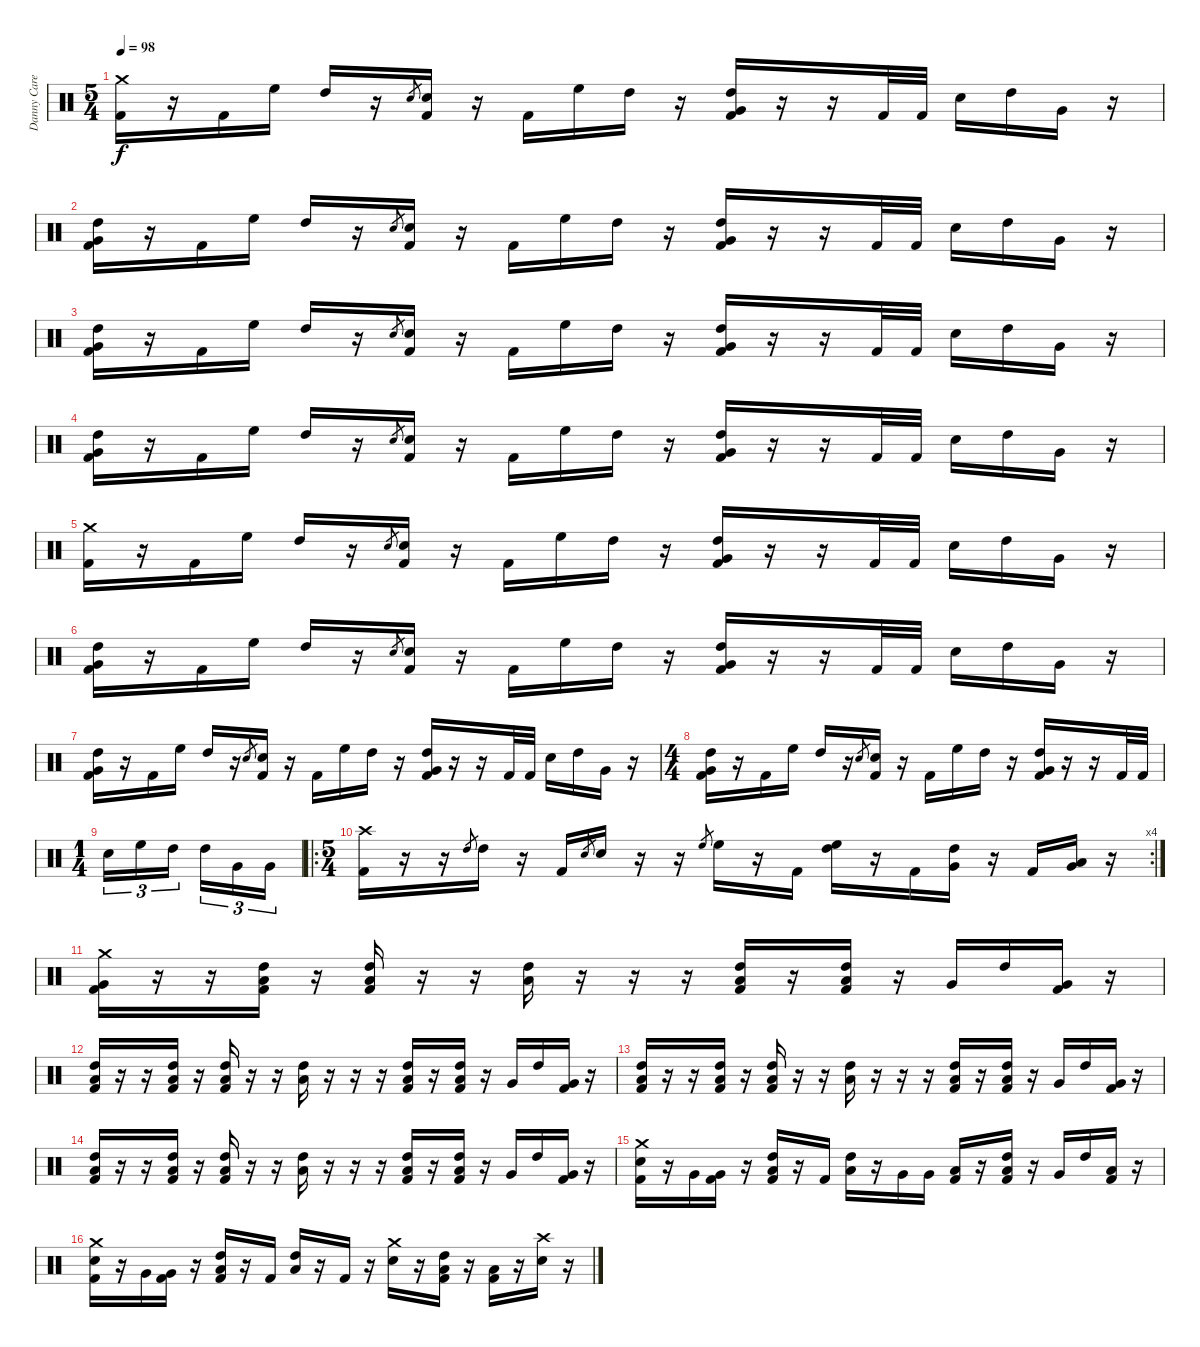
\track ("Danny Carey" "Danny Care") {instrument percussion}
\staff {score}
\articulation defaults
\ts (5 4)
\tempo 98
\clef neutral
\ks c
("Crash medium (hit)" "Kick (hit) 2").16{dy f} r.16 "Kick (hit) 2".16 "High Floor Tom (hit)".16 "High Tom (hit)".16 r.16 "Electric Snare (hit)".8{gr} ("Electric Snare (hit)" "Kick (hit) 2").16 r.16 "Kick (hit) 2".16 "High Floor Tom (hit)".16 "High Tom (hit)".16 r.16 ("High Tom (hit)" "Very Low Tom (hit)" "Kick (hit) 2").16 r.16 r.16 "Kick (hit) 2".32 "Kick (hit) 2".32 "Electric Snare (hit)".16 "High Tom (hit)".16 "Very Low Tom (hit)".16 r.16 |
("High Tom (hit)" "Very Low Tom (hit)" "Kick (hit) 2").16 r.16 "Kick (hit) 2".16 "High Floor Tom (hit)".16 "High Tom (hit)".16 r.16 "Electric Snare (hit)".8{gr} ("Electric Snare (hit)" "Kick (hit) 2").16 r.16 "Kick (hit) 2".16 "High Floor Tom (hit)".16 "High Tom (hit)".16 r.16 ("High Tom (hit)" "Very Low Tom (hit)" "Kick (hit) 2").16 r.16 r.16 "Kick (hit) 2".32 "Kick (hit) 2".32 "Electric Snare (hit)".16 "High Tom (hit)".16 "Very Low Tom (hit)".16 r.16 |
("High Tom (hit)" "Very Low Tom (hit)" "Kick (hit) 2").16 r.16 "Kick (hit) 2".16 "High Floor Tom (hit)".16 "High Tom (hit)".16 r.16 "Electric Snare (hit)".8{gr} ("Electric Snare (hit)" "Kick (hit) 2").16 r.16 "Kick (hit) 2".16 "High Floor Tom (hit)".16 "High Tom (hit)".16 r.16 ("High Tom (hit)" "Very Low Tom (hit)" "Kick (hit) 2").16 r.16 r.16 "Kick (hit) 2".32 "Kick (hit) 2".32 "Electric Snare (hit)".16 "High Tom (hit)".16 "Very Low Tom (hit)".16 r.16 |
("High Tom (hit)" "Very Low Tom (hit)" "Kick (hit) 2").16 r.16 "Kick (hit) 2".16 "High Floor Tom (hit)".16 "High Tom (hit)".16 r.16 "Electric Snare (hit)".8{gr} ("Electric Snare (hit)" "Kick (hit) 2").16 r.16 "Kick (hit) 2".16 "High Floor Tom (hit)".16 "High Tom (hit)".16 r.16 ("High Tom (hit)" "Very Low Tom (hit)" "Kick (hit) 2").16 r.16 r.16 "Kick (hit) 2".32 "Kick (hit) 2".32 "Electric Snare (hit)".16 "High Tom (hit)".16 "Very Low Tom (hit)".16 r.16 |
("Crash medium (hit)" "Kick (hit) 2").16 r.16 "Kick (hit) 2".16 "High Floor Tom (hit)".16 "High Tom (hit)".16 r.16 "Electric Snare (hit)".8{gr} ("Electric Snare (hit)" "Kick (hit) 2").16 r.16 "Kick (hit) 2".16 "High Floor Tom (hit)".16 "High Tom (hit)".16 r.16 ("High Tom (hit)" "Very Low Tom (hit)" "Kick (hit) 2").16 r.16 r.16 "Kick (hit) 2".32 "Kick (hit) 2".32 "Electric Snare (hit)".16 "High Tom (hit)".16 "Very Low Tom (hit)".16 r.16 |
("High Tom (hit)" "Very Low Tom (hit)" "Kick (hit) 2").16 r.16 "Kick (hit) 2".16 "High Floor Tom (hit)".16 "High Tom (hit)".16 r.16 "Electric Snare (hit)".8{gr} ("Electric Snare (hit)" "Kick (hit) 2").16 r.16 "Kick (hit) 2".16 "High Floor Tom (hit)".16 "High Tom (hit)".16 r.16 ("High Tom (hit)" "Very Low Tom (hit)" "Kick (hit) 2").16 r.16 r.16 "Kick (hit) 2".32 "Kick (hit) 2".32 "Electric Snare (hit)".16 "High Tom (hit)".16 "Very Low Tom (hit)".16 r.16 |
("High Tom (hit)" "Very Low Tom (hit)" "Kick (hit) 2").16 r.16 "Kick (hit) 2".16 "High Floor Tom (hit)".16 "High Tom (hit)".16 r.16 "Electric Snare (hit)".8{gr} ("Electric Snare (hit)" "Kick (hit) 2").16 r.16 "Kick (hit) 2".16 "High Floor Tom (hit)".16 "High Tom (hit)".16 r.16 ("High Tom (hit)" "Very Low Tom (hit)" "Kick (hit) 2").16 r.16 r.16 "Kick (hit) 2".32 "Kick (hit) 2".32 "Electric Snare (hit)".16 "High Tom (hit)".16 "Very Low Tom (hit)".16 r.16 |
\ts (4 4)
("High Tom (hit)" "Very Low Tom (hit)" "Kick (hit) 2").16 r.16 "Kick (hit) 2".16 "High Floor Tom (hit)".16 "High Tom (hit)".16 r.16 "Electric Snare (hit)".8{gr} ("Electric Snare (hit)" "Kick (hit) 2").16 r.16 "Kick (hit) 2".16 "High Floor Tom (hit)".16 "High Tom (hit)".16 r.16 ("High Tom (hit)" "Very Low Tom (hit)" "Kick (hit) 2").16 r.16 r.16 "Kick (hit) 2".32 "Kick (hit) 2".32 |
\ts (1 4)
"Electric Snare (hit)".16{tu (3 2)} "High Floor Tom (hit)".16{tu (3 2)} "High Tom (hit)".16{tu (3 2) beam splitsecondary} "High Tom (hit)".16{tu (3 2)} "Very Low Tom (hit)".16{tu (3 2)} "Very Low Tom (hit)".16{tu (3 2)} |
\ro
\rc 4
\ts (5 4)
("Crash high (hit)" "Kick (hit) 2").16 r.16 r.16 "High Tom (hit)".8{gr} "High Tom (hit)".16 r.16 "Kick (hit) 2".16 "Electric Snare (hit)".8{gr} "Electric Snare (hit)".16 r.16 r.16 "High Floor Tom (hit)".8{gr} "High Floor Tom (hit)".16 r.16 "Kick (hit) 2".16 ("High Floor Tom (hit)" "High Tom (hit)").16 r.16 "Kick (hit) 2".16 ("High Tom (hit)" "Very Low Tom (hit)").16 r.16 "Kick (hit) 2".16 ("Very Low Tom (hit)" "Low Floor Tom (hit)").16 r.16 |
("Crash medium (hit)" "Very Low Tom (hit)" "Kick (hit) 2").16 r.16 r.16 ("High Tom (hit)" "Low Floor Tom (hit)" "Kick (hit) 2").16 r.16 ("High Tom (hit)" "Low Floor Tom (hit)" "Kick (hit) 2").16 r.16 r.16 ("High Tom (hit)" "Low Floor Tom (hit)").16 r.16 r.16 r.16 ("High Tom (hit)" "Low Floor Tom (hit)" "Kick (hit) 2").16 r.16 ("High Tom (hit)" "Low Floor Tom (hit)" "Kick (hit) 2").16 r.16 "Very Low Tom (hit)".16 "High Tom (hit)".16 ("Very Low Tom (hit)" "Kick (hit) 2").16 r.16 |
("High Tom (hit)" "Low Floor Tom (hit)" "Kick (hit) 2").16 r.16 r.16 ("High Tom (hit)" "Low Floor Tom (hit)" "Kick (hit) 2").16 r.16 ("High Tom (hit)" "Low Floor Tom (hit)" "Kick (hit) 2").16 r.16 r.16 ("High Tom (hit)" "Low Floor Tom (hit)").16 r.16 r.16 r.16 ("High Tom (hit)" "Low Floor Tom (hit)" "Kick (hit) 2").16 r.16 ("High Tom (hit)" "Low Floor Tom (hit)" "Kick (hit) 2").16 r.16 "Very Low Tom (hit)".16 "High Tom (hit)".16 ("Very Low Tom (hit)" "Kick (hit) 2").16 r.16 |
("High Tom (hit)" "Low Floor Tom (hit)" "Kick (hit) 2").16 r.16 r.16 ("High Tom (hit)" "Low Floor Tom (hit)" "Kick (hit) 2").16 r.16 ("High Tom (hit)" "Low Floor Tom (hit)" "Kick (hit) 2").16 r.16 r.16 ("High Tom (hit)" "Low Floor Tom (hit)").16 r.16 r.16 r.16 ("High Tom (hit)" "Low Floor Tom (hit)" "Kick (hit) 2").16 r.16 ("High Tom (hit)" "Low Floor Tom (hit)" "Kick (hit) 2").16 r.16 "Very Low Tom (hit)".16 "High Tom (hit)".16 ("Very Low Tom (hit)" "Kick (hit) 2").16 r.16 |
("High Tom (hit)" "Low Floor Tom (hit)" "Kick (hit) 2").16 r.16 r.16 ("High Tom (hit)" "Low Floor Tom (hit)" "Kick (hit) 2").16 r.16 ("High Tom (hit)" "Low Floor Tom (hit)" "Kick (hit) 2").16 r.16 r.16 ("High Tom (hit)" "Low Floor Tom (hit)").16 r.16 r.16 r.16 ("High Tom (hit)" "Low Floor Tom (hit)" "Kick (hit) 2").16 r.16 ("High Tom (hit)" "Low Floor Tom (hit)" "Kick (hit) 2").16 r.16 "Very Low Tom (hit)".16 "High Tom (hit)".16 ("Very Low Tom (hit)" "Kick (hit) 2").16 r.16 |
("Crash medium (hit)" "Electric Snare (hit)" "Kick (hit) 2").16 r.16 "Very Low Tom (hit)".16 ("Very Low Tom (hit)" "Kick (hit) 2").16 r.16 ("High Tom (hit)" "Low Floor Tom (hit)" "Kick (hit) 2").16 r.16 "Kick (hit) 2".16 ("High Tom (hit)" "Low Floor Tom (hit)").16 r.16 "Very Low Tom (hit)".16 "Very Low Tom (hit)".16 ("Low Floor Tom (hit)" "Kick (hit) 2").16 r.16 ("High Tom (hit)" "Low Floor Tom (hit)" "Kick (hit) 2").16 r.16 "Very Low Tom (hit)".16 "High Tom (hit)".16 ("Low Floor Tom (hit)" "Kick (hit) 2").16 r.16 |
("Crash medium (hit)" "Electric Snare (hit)" "Kick (hit) 2").16 r.16 "Very Low Tom (hit)".16 ("Very Low Tom (hit)" "Kick (hit) 2").16 r.16 ("High Tom (hit)" "Low Floor Tom (hit)" "Kick (hit) 2").16 r.16 "Kick (hit) 2".16 ("High Tom (hit)" "Low Floor Tom (hit)").16 r.16 "Kick (hit) 2".16 r.16 ("Crash medium (hit)" "Electric Snare (hit)").16 r.16 ("High Tom (hit)" "Low Floor Tom (hit)" "Kick (hit) 2").16 r.16 ("Low Floor Tom (hit)" "Kick (hit) 2").16 r.16 ("Crash high (hit)" "Electric Snare (hit)").16 r.16
